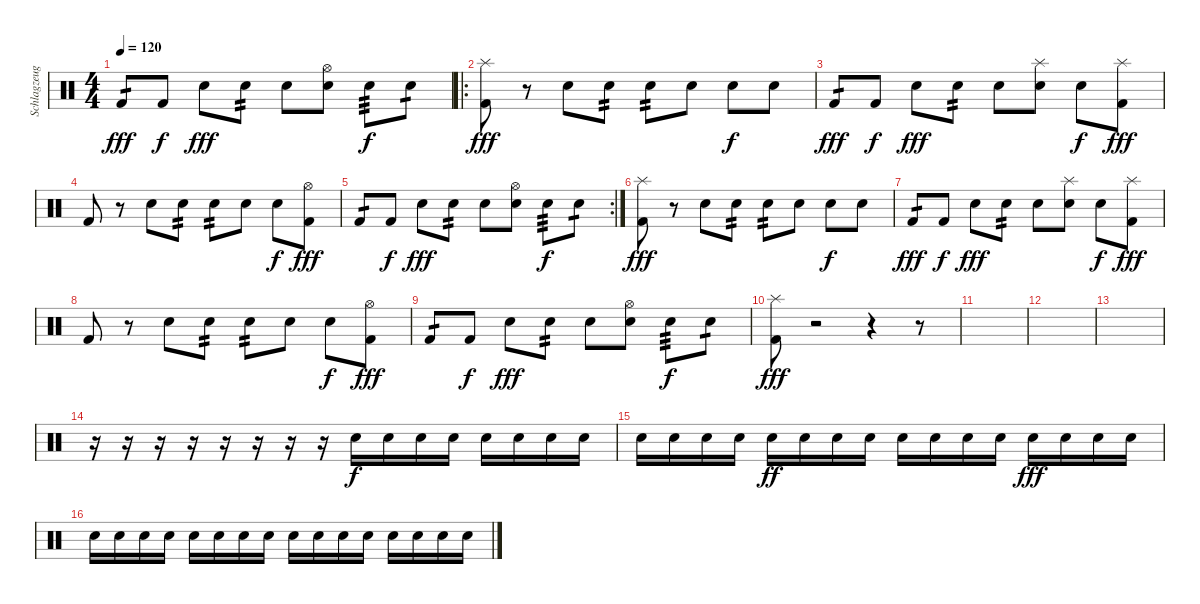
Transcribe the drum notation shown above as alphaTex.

\track ("Schlagzeug" "Schlagzeug") {instrument percussion}
\staff {score}
\articulation defaults
\ts (4 4)
\tempo 120
\clef neutral
\ks c "Kick (hit) 2".8{tp 1 dy fff} "Kick (hit) 2".8{dy f} "Snare (hit) 2".8{dy fff} "Snare (hit) 2".8{tp 2} "Snare (hit) 2".8
("Snare (hit) 2" "Hi-Hat (open)").8 "Snare (hit) 2".8{tp 3 dy f} "Snare (hit) 2".8{tp 1} |
\ro
("Kick (hit) 2" "Splash (hit)").8{dy fff} r.8 "Snare (hit) 2".8 "Snare (hit) 2".8{tp 2} "Snare (hit) 2".8{tp 2} "Snare (hit) 2".8 "Snare (hit) 2".8{dy f} "Snare (hit) 2".8 |
"Kick (hit) 2".8{tp 1 dy fff} "Kick (hit) 2".8{dy f} "Snare (hit) 2".8{dy fff} "Snare (hit) 2".8{tp 2} "Snare (hit) 2".8 ("Snare (hit) 2" "Splash (hit)").8 "Snare (hit) 2".8{dy f} ("Kick (hit) 2" "Splash (hit)").8{dy fff} |
"Kick (hit) 2".8 r.8 "Snare (hit) 2".8 "Snare (hit) 2".8{tp 2} "Snare (hit) 2".8{tp 2} "Snare (hit) 2".8 "Snare (hit) 2".8{dy f} ("Kick (hit) 2" "Hi-Hat (open)").8{dy fff} |
\rc 2 "Kick (hit) 2".8{tp 1} "Kick (hit) 2".8{dy f} "Snare (hit) 2".8{dy fff} "Snare (hit) 2".8{tp 2} "Snare (hit) 2".8
("Snare (hit) 2" "Hi-Hat (open)").8 "Snare (hit) 2".8{tp 3 dy f} "Snare (hit) 2".8{tp 1} |
("Kick (hit) 2" "Splash (hit)").8{dy fff} r.8 "Snare (hit) 2".8 "Snare (hit) 2".8{tp 2} "Snare (hit) 2".8{tp 2} "Snare (hit) 2".8 "Snare (hit) 2".8{dy f} "Snare (hit) 2".8 |
"Kick (hit) 2".8{tp 1 dy fff} "Kick (hit) 2".8{dy f} "Snare (hit) 2".8{dy fff} "Snare (hit) 2".8{tp 2} "Snare (hit) 2".8 ("Snare (hit) 2" "Splash (hit)").8 "Snare (hit) 2".8{dy f} ("Kick (hit) 2" "Splash (hit)").8{dy fff} |
"Kick (hit) 2".8 r.8 "Snare (hit) 2".8 "Snare (hit) 2".8{tp 2} "Snare (hit) 2".8{tp 2} "Snare (hit) 2".8 "Snare (hit) 2".8{dy f} ("Kick (hit) 2" "Hi-Hat (open)").8{dy fff} |
"Kick (hit) 2".8{tp 1} "Kick (hit) 2".8{dy f} "Snare (hit) 2".8{dy fff} "Snare (hit) 2".8{tp 2} "Snare (hit) 2".8 ("Snare (hit) 2" "Hi-Hat (open)").8 "Snare (hit) 2".8{tp 3 dy f} "Snare (hit) 2".8{tp 1} |
("Kick (hit) 2" "Splash (hit)").8{dy fff} r.2 r.4 r.8 |
|
|
|
r.16 r.16 r.16 r.16 r.16 r.16 r.16 r.16 "Snare (hit) 2".16{dy f} "Snare (hit) 2".16 "Snare (hit) 2".16 "Snare (hit) 2".16 "Snare (hit) 2".16 "Snare (hit) 2".16 "Snare (hit) 2".16 "Snare (hit) 2".16 |
"Snare (hit) 2".16 "Snare (hit) 2".16 "Snare (hit) 2".16 "Snare (hit) 2".16 "Snare (hit) 2".16{dy ff} "Snare (hit) 2".16 "Snare (hit) 2".16 "Snare (hit) 2".16 "Snare (hit) 2".16 "Snare (hit) 2".16 "Snare (hit) 2".16 "Snare (hit) 2".16 "Snare (hit) 2".16{dy fff} "Snare (hit) 2".16 "Snare (hit) 2".16 "Snare (hit) 2".16 |
"Snare (hit) 2".16 "Snare (hit) 2".16 "Snare (hit) 2".16 "Snare (hit) 2".16 "Snare (hit) 2".16 "Snare (hit) 2".16 "Snare (hit) 2".16 "Snare (hit) 2".16 "Snare (hit) 2".16 "Snare (hit) 2".16 "Snare (hit) 2".16 "Snare (hit) 2".16 "Snare (hit) 2".16 "Snare (hit) 2".16 "Snare (hit) 2".16 "Snare (hit) 2".16
